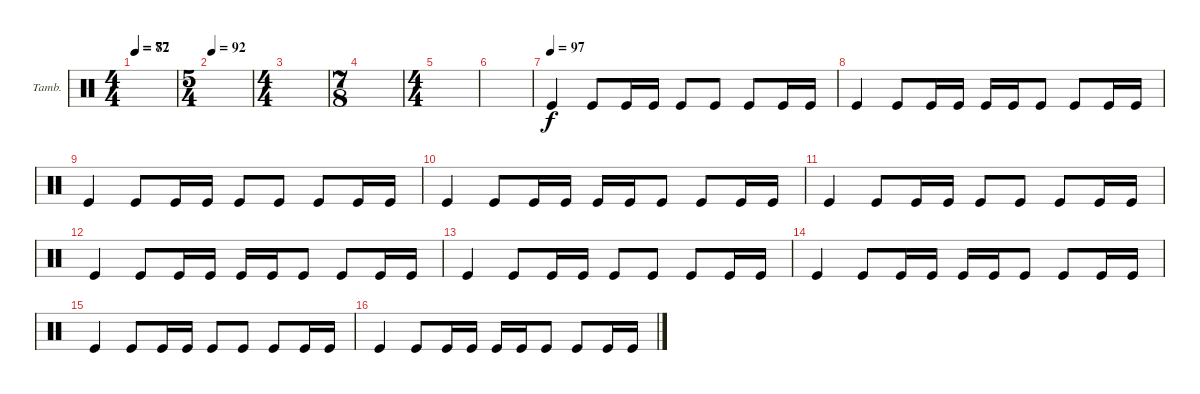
\defaultSystemsLayout 4
\bracketExtendMode groupsimilarinstruments
\firstSystemTrackNameOrientation horizontal
\otherSystemsTrackNameOrientation horizontal
\track ("Tambourine [Robert]" "Tamb.") {instrument percussion}
\staff {score}
\articulation defaults
\ts (4 4)
\tempo 77
\tempo (82 0.00625)
\clef neutral
\scale
0.333333
\ks c
|
\ts (5 4)
\tempo 92
\scale
0.333333 |
\ts (4 4)
\scale
0.333333 |
\ts (7 8)
\scale
0.333333 |
\ts (4 4)
\scale
0.333333 |
|
\tempo (97)
"Kick (hit)".4 "Kick (hit)".8 "Kick (hit)".16 "Kick (hit)".16 "Kick (hit)".8 "Kick (hit)".8 "Kick (hit)".8 "Kick (hit)".16 "Kick (hit)".16 |
"Kick (hit)".4 "Kick (hit)".8 "Kick (hit)".16 "Kick (hit)".16 "Kick (hit)".16 "Kick (hit)".16 "Kick (hit)".8 "Kick (hit)".8 "Kick (hit)".16 "Kick (hit)".16 |
"Kick (hit)".4 "Kick (hit)".8 "Kick (hit)".16 "Kick (hit)".16 "Kick (hit)".8 "Kick (hit)".8 "Kick (hit)".8 "Kick (hit)".16 "Kick (hit)".16 |
"Kick (hit)".4 "Kick (hit)".8 "Kick (hit)".16 "Kick (hit)".16 "Kick (hit)".16 "Kick (hit)".16 "Kick (hit)".8 "Kick (hit)".8 "Kick (hit)".16 "Kick (hit)".16 |
"Kick (hit)".4 "Kick (hit)".8 "Kick (hit)".16 "Kick (hit)".16 "Kick (hit)".8 "Kick (hit)".8 "Kick (hit)".8 "Kick (hit)".16 "Kick (hit)".16 |
"Kick (hit)".4 "Kick (hit)".8 "Kick (hit)".16 "Kick (hit)".16 "Kick (hit)".16 "Kick (hit)".16 "Kick (hit)".8 "Kick (hit)".8 "Kick (hit)".16 "Kick (hit)".16 |
"Kick (hit)".4 "Kick (hit)".8 "Kick (hit)".16 "Kick (hit)".16 "Kick (hit)".8 "Kick (hit)".8 "Kick (hit)".8 "Kick (hit)".16 "Kick (hit)".16 |
"Kick (hit)".4 "Kick (hit)".8 "Kick (hit)".16 "Kick (hit)".16 "Kick (hit)".16 "Kick (hit)".16 "Kick (hit)".8 "Kick (hit)".8 "Kick (hit)".16 "Kick (hit)".16 |
"Kick (hit)".4 "Kick (hit)".8 "Kick (hit)".16 "Kick (hit)".16 "Kick (hit)".8 "Kick (hit)".8 "Kick (hit)".8 "Kick (hit)".16 "Kick (hit)".16 |
"Kick (hit)".4 "Kick (hit)".8 "Kick (hit)".16 "Kick (hit)".16 "Kick (hit)".16 "Kick (hit)".16 "Kick (hit)".8 "Kick (hit)".8 "Kick (hit)".16 "Kick (hit)".16
